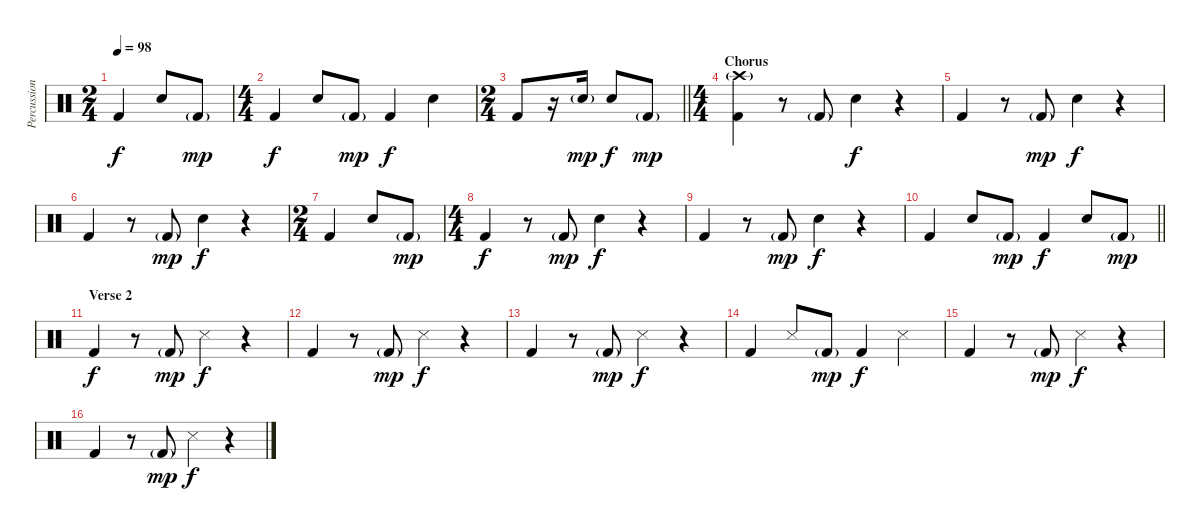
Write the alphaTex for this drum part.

\track ("Percussion" "Percussion") {instrument percussion}
\staff {score}
\articulation defaults
\ts (2 4)
\tempo 98
\clef neutral
\ks c "Kick (hit) 2".4{dy f} "Snare (hit) 2".8 "Kick (hit) 2"{g}.8{dy mp}
|
\ts (4 4)
"Kick (hit) 2".4{dy f} "Snare (hit) 2".8 "Kick (hit) 2"{g}.8{dy mp} "Kick (hit) 2".4{dy f} "Snare (hit) 2".4 |
\ts (2 4)
\barLineRight lightlight "Kick (hit) 2".8
r.16 "Snare (hit) 2"{g}.16{dy mp} "Snare (hit) 2".8{dy f} "Kick (hit) 2"{g}.8{dy mp} |
\ts (4 4)
\section ("" "Chorus")
("Crash high (hit)"{g} "Kick (hit) 2").4 r.8 "Kick (hit) 2"{g}.8 "Snare (hit) 2".4{dy f} r.4 |
"Kick (hit) 2".4 r.8 "Kick (hit) 2"{g}.8{dy mp} "Snare (hit) 2".4{dy f} r.4 |
"Kick (hit) 2".4 r.8 "Kick (hit) 2"{g}.8{dy mp} "Snare (hit) 2".4{dy f} r.4 |
\ts (2 4)
"Kick (hit) 2".4 "Snare (hit) 2".8 "Kick (hit) 2"{g}.8{dy mp} |
\ts (4 4)
"Kick (hit) 2".4{dy f} r.8 "Kick (hit) 2"{g}.8{dy mp} "Snare (hit) 2".4{dy f} r.4 |
"Kick (hit) 2".4 r.8 "Kick (hit) 2"{g}.8{dy mp} "Snare (hit) 2".4{dy f} r.4 |
\barLineRight lightlight "Kick (hit) 2".4 "Snare (hit) 2".8 "Kick (hit) 2"{g}.8{dy mp} "Kick (hit) 2".4{dy f} "Snare (hit) 2".8 "Kick (hit) 2"{g}.8{dy mp}
|
\section ("" "Verse 2")
"Kick (hit) 2".4{dy f} r.8 "Kick (hit) 2"{g}.8{dy mp} "Snare (side stick) 3".4{dy f} r.4 |
"Kick (hit) 2".4 r.8 "Kick (hit) 2"{g}.8{dy mp} "Snare (side stick) 3".4{dy f} r.4 |
"Kick (hit) 2".4 r.8 "Kick (hit) 2"{g}.8{dy mp} "Snare (side stick) 3".4{dy f} r.4 |
"Kick (hit) 2".4 "Snare (side stick) 3".8 "Kick (hit) 2"{g}.8{dy mp} "Kick (hit) 2".4{dy f} "Snare (side stick) 3".4 |
"Kick (hit) 2".4 r.8 "Kick (hit) 2"{g}.8{dy mp} "Snare (side stick) 3".4{dy f} r.4 |
"Kick (hit) 2".4 r.8 "Kick (hit) 2"{g}.8{dy mp} "Snare (side stick) 3".4{dy f} r.4
